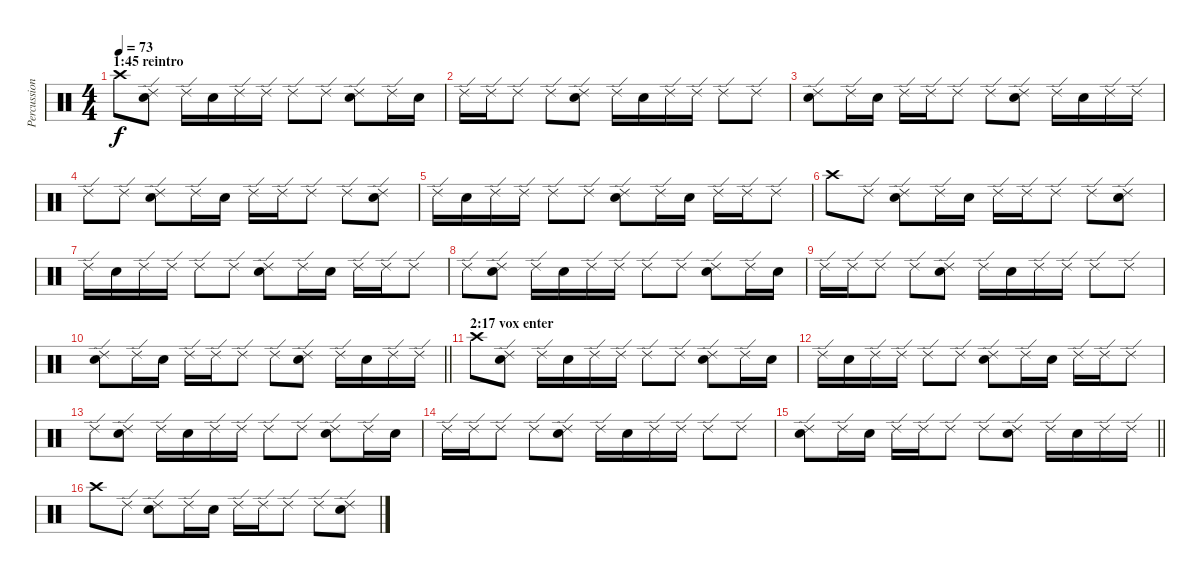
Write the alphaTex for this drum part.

\track ("Percussion" "Percussion") {instrument percussion}
\staff {score}
\articulation defaults
\ts (4 4)
\section ("" "1:45 reintro")
\tempo 73
\clef neutral
\ks c "Crash high (hit)".8{dy f}
("Ride (edge) 2" "Electric Snare (hit)").8 "Ride (edge) 2".16 "Electric Snare (hit)".16 "Ride (edge) 2".16 "Ride (edge) 2".16 "Ride (edge) 2".8 "Ride (edge) 2".8 ("Ride (edge) 2" "Electric Snare (hit)").8 "Ride (edge) 2".16 "Electric Snare (hit)".16 |
"Ride (edge) 2".16 "Ride (edge) 2".16 "Ride (edge) 2".8 "Ride (edge) 2".8 ("Ride (edge) 2" "Electric Snare (hit)").8 "Ride (edge) 2".16 "Electric Snare (hit)".16 "Ride (edge) 2".16 "Ride (edge) 2".16 "Ride (edge) 2".8 "Ride (edge) 2".8 |
("Ride (edge) 2" "Electric Snare (hit)").8 "Ride (edge) 2".16 "Electric Snare (hit)".16 "Ride (edge) 2".16 "Ride (edge) 2".16 "Ride (edge) 2".8 "Ride (edge) 2".8 ("Ride (edge) 2" "Electric Snare (hit)").8 "Ride (edge) 2".16 "Electric Snare (hit)".16 "Ride (edge) 2".16 "Ride (edge) 2".16 |
"Ride (edge) 2".8 "Ride (edge) 2".8 ("Ride (edge) 2" "Electric Snare (hit)").8 "Ride (edge) 2".16 "Electric Snare (hit)".16 "Ride (edge) 2".16 "Ride (edge) 2".16 "Ride (edge) 2".8 "Ride (edge) 2".8 ("Ride (edge) 2" "Electric Snare (hit)").8 |
"Ride (edge) 2".16 "Electric Snare (hit)".16 "Ride (edge) 2".16 "Ride (edge) 2".16 "Ride (edge) 2".8 "Ride (edge) 2".8 ("Ride (edge) 2" "Electric Snare (hit)").8 "Ride (edge) 2".16 "Electric Snare (hit)".16 "Ride (edge) 2".16 "Ride (edge) 2".16 "Ride (edge) 2".8 |
"Crash high (hit)".8 "Ride (edge) 2".8 ("Ride (edge) 2" "Electric Snare (hit)").8 "Ride (edge) 2".16 "Electric Snare (hit)".16 "Ride (edge) 2".16 "Ride (edge) 2".16 "Ride (edge) 2".8 "Ride (edge) 2".8 ("Ride (edge) 2" "Electric Snare (hit)").8 |
"Ride (edge) 2".16 "Electric Snare (hit)".16 "Ride (edge) 2".16 "Ride (edge) 2".16 "Ride (edge) 2".8 "Ride (edge) 2".8 ("Ride (edge) 2" "Electric Snare (hit)").8 "Ride (edge) 2".16 "Electric Snare (hit)".16 "Ride (edge) 2".16 "Ride (edge) 2".16 "Ride (edge) 2".8 |
"Ride (edge) 2".8 ("Ride (edge) 2" "Electric Snare (hit)").8 "Ride (edge) 2".16 "Electric Snare (hit)".16 "Ride (edge) 2".16 "Ride (edge) 2".16 "Ride (edge) 2".8 "Ride (edge) 2".8 ("Ride (edge) 2" "Electric Snare (hit)").8 "Ride (edge) 2".16 "Electric Snare (hit)".16 |
"Ride (edge) 2".16 "Ride (edge) 2".16 "Ride (edge) 2".8 "Ride (edge) 2".8 ("Ride (edge) 2" "Electric Snare (hit)").8 "Ride (edge) 2".16 "Electric Snare (hit)".16 "Ride (edge) 2".16 "Ride (edge) 2".16 "Ride (edge) 2".8 "Ride (edge) 2".8 |
\barLineRight lightlight
("Ride (edge) 2" "Electric Snare (hit)").8 "Ride (edge) 2".16 "Electric Snare (hit)".16 "Ride (edge) 2".16 "Ride (edge) 2".16 "Ride (edge) 2".8 "Ride (edge) 2".8 ("Ride (edge) 2" "Electric Snare (hit)").8 "Ride (edge) 2".16 "Electric Snare (hit)".16 "Ride (edge) 2".16 "Ride (edge) 2".16 |
\section ("" "2:17 vox enter")
"Crash high (hit)".8 ("Ride (edge) 2" "Electric Snare (hit)").8 "Ride (edge) 2".16 "Electric Snare (hit)".16 "Ride (edge) 2".16 "Ride (edge) 2".16 "Ride (edge) 2".8 "Ride (edge) 2".8 ("Ride (edge) 2" "Electric Snare (hit)").8 "Ride (edge) 2".16 "Electric Snare (hit)".16 |
"Ride (edge) 2".16 "Electric Snare (hit)".16 "Ride (edge) 2".16 "Ride (edge) 2".16 "Ride (edge) 2".8 "Ride (edge) 2".8 ("Ride (edge) 2" "Electric Snare (hit)").8 "Ride (edge) 2".16 "Electric Snare (hit)".16 "Ride (edge) 2".16 "Ride (edge) 2".16 "Ride (edge) 2".8 |
"Ride (edge) 2".8 ("Ride (edge) 2" "Electric Snare (hit)").8 "Ride (edge) 2".16 "Electric Snare (hit)".16 "Ride (edge) 2".16 "Ride (edge) 2".16 "Ride (edge) 2".8 "Ride (edge) 2".8 ("Ride (edge) 2" "Electric Snare (hit)").8 "Ride (edge) 2".16 "Electric Snare (hit)".16 |
"Ride (edge) 2".16 "Ride (edge) 2".16 "Ride (edge) 2".8 "Ride (edge) 2".8 ("Ride (edge) 2" "Electric Snare (hit)").8 "Ride (edge) 2".16 "Electric Snare (hit)".16 "Ride (edge) 2".16 "Ride (edge) 2".16 "Ride (edge) 2".8 "Ride (edge) 2".8 |
\barLineRight lightlight
("Ride (edge) 2" "Electric Snare (hit)").8 "Ride (edge) 2".16 "Electric Snare (hit)".16 "Ride (edge) 2".16 "Ride (edge) 2".16 "Ride (edge) 2".8 "Ride (edge) 2".8 ("Ride (edge) 2" "Electric Snare (hit)").8 "Ride (edge) 2".16 "Electric Snare (hit)".16 "Ride (edge) 2".16 "Ride (edge) 2".16 |
"Crash high (hit)".8 "Ride (edge) 2".8 ("Ride (edge) 2" "Electric Snare (hit)").8 "Ride (edge) 2".16 "Electric Snare (hit)".16 "Ride (edge) 2".16 "Ride (edge) 2".16 "Ride (edge) 2".8 "Ride (edge) 2".8 ("Ride (edge) 2" "Electric Snare (hit)").8
